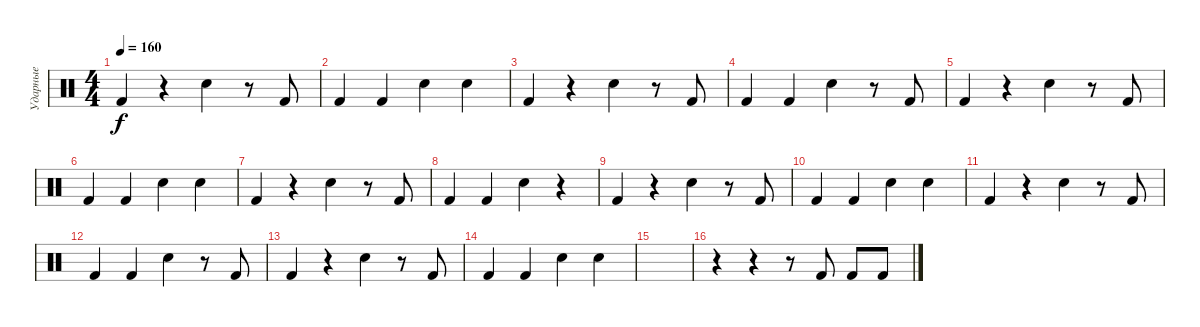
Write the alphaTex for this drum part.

\track ("Ударные" "Ударные") {instrument percussion}
\staff {score}
\articulation defaults
\ts (4 4)
\tempo 160
\clef neutral
\ks c "Kick (hit) 2".4{dy f}
r.4 "Electric Snare (hit)".4 r.8 "Kick (hit) 2".8 |
"Kick (hit) 2".4 "Kick (hit) 2".4 "Electric Snare (hit)".4 "Electric Snare (hit)".4 |
"Kick (hit) 2".4 r.4 "Electric Snare (hit)".4 r.8 "Kick (hit) 2".8 |
"Kick (hit) 2".4 "Kick (hit) 2".4 "Electric Snare (hit)".4 r.8 "Kick (hit) 2".8 |
"Kick (hit) 2".4 r.4 "Electric Snare (hit)".4 r.8 "Kick (hit) 2".8 |
"Kick (hit) 2".4 "Kick (hit) 2".4 "Electric Snare (hit)".4 "Electric Snare (hit)".4 |
"Kick (hit) 2".4 r.4 "Electric Snare (hit)".4 r.8 "Kick (hit) 2".8 |
"Kick (hit) 2".4 "Kick (hit) 2".4 "Electric Snare (hit)".4 r.4 |
"Kick (hit) 2".4 r.4 "Electric Snare (hit)".4 r.8 "Kick (hit) 2".8 |
"Kick (hit) 2".4 "Kick (hit) 2".4 "Electric Snare (hit)".4 "Electric Snare (hit)".4 |
"Kick (hit) 2".4 r.4 "Electric Snare (hit)".4 r.8 "Kick (hit) 2".8 |
"Kick (hit) 2".4 "Kick (hit) 2".4 "Electric Snare (hit)".4 r.8 "Kick (hit) 2".8 |
"Kick (hit) 2".4 r.4 "Electric Snare (hit)".4 r.8 "Kick (hit) 2".8 |
"Kick (hit) 2".4 "Kick (hit) 2".4 "Electric Snare (hit)".4 "Electric Snare (hit)".4 |
|
r.4 r.4 r.8 "Kick (hit) 2".8 "Kick (hit) 2".8 "Kick (hit) 2".8
